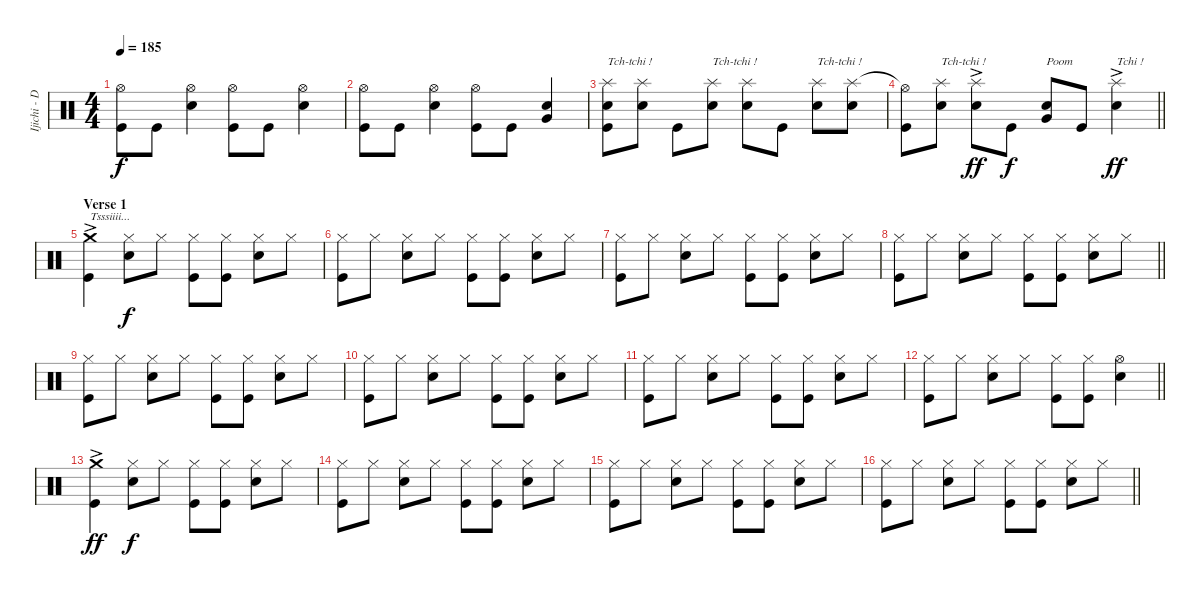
\track ("Ijichi - Drums" "Ijichi - D") {instrument percussion}
\staff
\articulation defaults
\ts (4 4)
\tempo 185
\clef neutral
\ks c
("Hi-Hat (open)" "Kick (hit)").8{dy f} "Kick (hit)".8 ("Hi-Hat (open)" "Electric Snare (hit)").4 ("Hi-Hat (open)" "Kick (hit)").8 "Kick (hit)".8 ("Hi-Hat (open)" "Electric Snare (hit)").4 |
("Hi-Hat (open)" "Kick (hit)").8 "Kick (hit)".8 ("Hi-Hat (open)" "Electric Snare (hit)").4 ("Hi-Hat (open)" "Kick (hit)").8 "Kick (hit)".8 ("Electric Snare (hit)" "Very Low Tom (hit)").4 |
("Splash (hit)" "Electric Snare (hit)" "Kick (hit)").8{txt "Tch-tchi !"} ("Splash (hit)" "Electric Snare (hit)").8 "Kick (hit)".8 ("Splash (hit)" "Electric Snare (hit)").8{txt "Tch-tchi !"} ("Splash (hit)" "Electric Snare (hit)").8 "Kick (hit)".8 ("Splash (hit)" "Electric Snare (hit)").8{txt "Tch-tchi !"} ("Splash (hit)" "Electric Snare (hit)").8 |
\barLineRight lightlight
("Hi-Hat (open)"{t} "Kick (hit)").8 ("Splash (hit)" "Electric Snare (hit)").8{txt "Tch-tchi !"} ("Splash (hit)"{ac} "Electric Snare (hit)").8{dy ff} "Kick (hit)".8{dy f} ("Electric Snare (hit)" "Very Low Tom (hit)").8{txt "Poom"} "Kick (hit)".8 ("Splash (hit)"{ac} "Electric Snare (hit)").4{txt "Tchi !" dy ff} |
\section ("" "Verse 1")
("Crash medium (hit)"{ac} "Kick (hit)").4{txt "Tsssiiii..."} ("Hi-Hat (closed)" "Electric Snare (hit)").8{dy f} "Hi-Hat (closed)".8 ("Hi-Hat (closed)" "Kick (hit)").8 ("Hi-Hat (closed)" "Kick (hit)").8 ("Hi-Hat (closed)" "Electric Snare (hit)").8 "Hi-Hat (closed)".8 |
("Hi-Hat (closed)" "Kick (hit)").8 "Hi-Hat (closed)".8 ("Hi-Hat (closed)" "Electric Snare (hit)").8 "Hi-Hat (closed)".8 ("Hi-Hat (closed)" "Kick (hit)").8 ("Hi-Hat (closed)" "Kick (hit)").8 ("Hi-Hat (closed)" "Electric Snare (hit)").8 "Hi-Hat (closed)".8 |
("Hi-Hat (closed)" "Kick (hit)").8 "Hi-Hat (closed)".8 ("Hi-Hat (closed)" "Electric Snare (hit)").8 "Hi-Hat (closed)".8 ("Hi-Hat (closed)" "Kick (hit)").8 ("Hi-Hat (closed)" "Kick (hit)").8 ("Hi-Hat (closed)" "Electric Snare (hit)").8 "Hi-Hat (closed)".8 |
\barLineRight lightlight
("Hi-Hat (closed)" "Kick (hit)").8 "Hi-Hat (closed)".8 ("Hi-Hat (closed)" "Electric Snare (hit)").8 "Hi-Hat (closed)".8 ("Hi-Hat (closed)" "Kick (hit)").8 ("Hi-Hat (closed)" "Kick (hit)").8 ("Hi-Hat (closed)" "Electric Snare (hit)").8 "Hi-Hat (closed)".8 |
("Hi-Hat (closed)" "Kick (hit)").8 "Hi-Hat (closed)".8 ("Hi-Hat (closed)" "Electric Snare (hit)").8 "Hi-Hat (closed)".8 ("Hi-Hat (closed)" "Kick (hit)").8 ("Hi-Hat (closed)" "Kick (hit)").8 ("Hi-Hat (closed)" "Electric Snare (hit)").8 "Hi-Hat (closed)".8 |
("Hi-Hat (closed)" "Kick (hit)").8 "Hi-Hat (closed)".8 ("Hi-Hat (closed)" "Electric Snare (hit)").8 "Hi-Hat (closed)".8 ("Hi-Hat (closed)" "Kick (hit)").8 ("Hi-Hat (closed)" "Kick (hit)").8 ("Hi-Hat (closed)" "Electric Snare (hit)").8 "Hi-Hat (closed)".8 |
("Hi-Hat (closed)" "Kick (hit)").8 "Hi-Hat (closed)".8 ("Hi-Hat (closed)" "Electric Snare (hit)").8 "Hi-Hat (closed)".8 ("Hi-Hat (closed)" "Kick (hit)").8 ("Hi-Hat (closed)" "Kick (hit)").8 ("Hi-Hat (closed)" "Electric Snare (hit)").8 "Hi-Hat (closed)".8 |
\barLineRight lightlight
("Hi-Hat (closed)" "Kick (hit)").8 "Hi-Hat (closed)".8 ("Hi-Hat (closed)" "Electric Snare (hit)").8 "Hi-Hat (closed)".8 ("Hi-Hat (closed)" "Kick (hit)").8 ("Hi-Hat (closed)" "Kick (hit)").8 ("Hi-Hat (open)" "Electric Snare (hit)").4 |
("Crash medium (hit)"{ac} "Kick (hit)").4{dy ff} ("Hi-Hat (closed)" "Electric Snare (hit)").8{dy f} "Hi-Hat (closed)".8 ("Hi-Hat (closed)" "Kick (hit)").8 ("Hi-Hat (closed)" "Kick (hit)").8 ("Hi-Hat (closed)" "Electric Snare (hit)").8 "Hi-Hat (closed)".8 |
("Hi-Hat (closed)" "Kick (hit)").8 "Hi-Hat (closed)".8 ("Hi-Hat (closed)" "Electric Snare (hit)").8 "Hi-Hat (closed)".8 ("Hi-Hat (closed)" "Kick (hit)").8 ("Hi-Hat (closed)" "Kick (hit)").8 ("Hi-Hat (closed)" "Electric Snare (hit)").8 "Hi-Hat (closed)".8 |
("Hi-Hat (closed)" "Kick (hit)").8 "Hi-Hat (closed)".8 ("Hi-Hat (closed)" "Electric Snare (hit)").8 "Hi-Hat (closed)".8 ("Hi-Hat (closed)" "Kick (hit)").8 ("Hi-Hat (closed)" "Kick (hit)").8 ("Hi-Hat (closed)" "Electric Snare (hit)").8 "Hi-Hat (closed)".8 |
\barLineRight lightlight
("Hi-Hat (closed)" "Kick (hit)").8 "Hi-Hat (closed)".8 ("Hi-Hat (closed)" "Electric Snare (hit)").8 "Hi-Hat (closed)".8 ("Hi-Hat (closed)" "Kick (hit)").8 ("Hi-Hat (closed)" "Kick (hit)").8 ("Hi-Hat (closed)" "Electric Snare (hit)").8 "Hi-Hat (closed)".8
